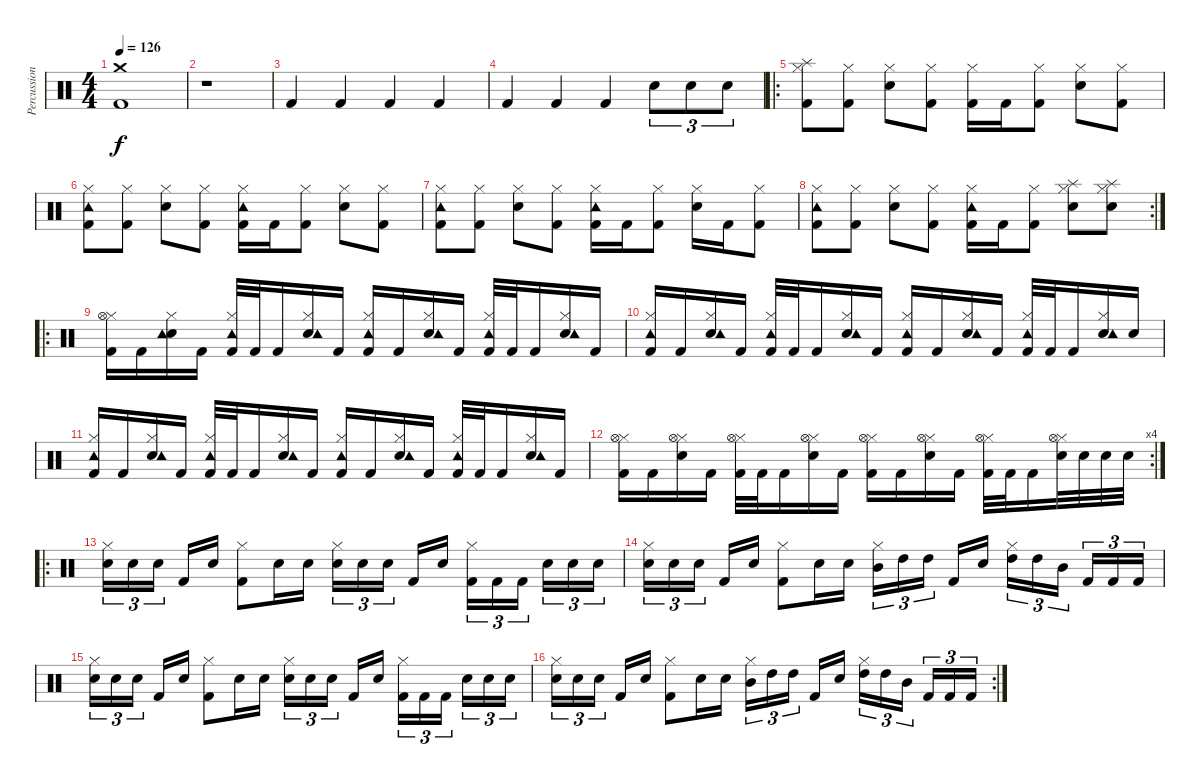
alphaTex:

\track ("Percussion" "Percussion") {instrument percussion}
\staff {score}
\articulation defaults
\ts (4 4)
\tempo 126
\clef neutral
\ks c
("Crash medium (hit)" "Kick (hit) 2").1{dy f} |
r.1 |
"Kick (hit) 2".4 "Kick (hit) 2".4 "Kick (hit) 2".4 "Kick (hit) 2".4 |
"Kick (hit) 2".4 "Kick (hit) 2".4 "Kick (hit) 2".4 "Electric Snare (hit)".8{tu (3 2)} "Electric Snare (hit)".8{tu (3 2)} "Electric Snare (hit)".8{tu (3 2)} |
\ro
("Hi-Hat (closed)" "Kick (hit) 2" "Splash (hit)").8 ("Hi-Hat (closed)" "Kick (hit) 2").8 ("Hi-Hat (closed)" "Electric Snare (hit)").8 ("Hi-Hat (closed)" "Kick (hit) 2").8 ("Hi-Hat (closed)" "Kick (hit) 2").16 "Kick (hit) 2".16 ("Hi-Hat (closed)" "Kick (hit) 2").8 ("Hi-Hat (closed)" "Electric Snare (hit)").8 ("Hi-Hat (closed)" "Kick (hit) 2").8 |
("Hi-Hat (closed)" "Kick (hit) 2" "Tambourine (hit)").8 ("Hi-Hat (closed)" "Kick (hit) 2").8 ("Hi-Hat (closed)" "Electric Snare (hit)").8 ("Hi-Hat (closed)" "Kick (hit) 2").8 ("Hi-Hat (closed)" "Kick (hit) 2" "Tambourine (hit)").16 "Kick (hit) 2".16 ("Hi-Hat (closed)" "Kick (hit) 2").8 ("Hi-Hat (closed)" "Electric Snare (hit)").8 ("Hi-Hat (closed)" "Kick (hit) 2").8 |
("Hi-Hat (closed)" "Kick (hit) 2" "Tambourine (hit)").8 ("Hi-Hat (closed)" "Kick (hit) 2").8 ("Hi-Hat (closed)" "Electric Snare (hit)").8 ("Hi-Hat (closed)" "Kick (hit) 2").8 ("Hi-Hat (closed)" "Kick (hit) 2" "Tambourine (hit)").16 "Kick (hit) 2".16 ("Hi-Hat (closed)" "Kick (hit) 2").8 ("Hi-Hat (closed)" "Electric Snare (hit)").16 "Kick (hit) 2".16 ("Hi-Hat (closed)" "Kick (hit) 2").8 |
\rc 2
("Hi-Hat (closed)" "Kick (hit) 2" "Tambourine (hit)").8 ("Hi-Hat (closed)" "Kick (hit) 2").8 ("Hi-Hat (closed)" "Electric Snare (hit)").8 ("Hi-Hat (closed)" "Kick (hit) 2").8 ("Hi-Hat (closed)" "Kick (hit) 2" "Tambourine (hit)").16 "Kick (hit) 2".16 ("Hi-Hat (closed)" "Kick (hit) 2").8 ("Hi-Hat (closed)" "Electric Snare (hit)" "Splash (hit)").8 ("Hi-Hat (closed)" "Electric Snare (hit)" "Splash (hit)").8 |
\ro
("Hi-Hat (closed)" "Kick (hit) 2" "Hi-Hat (open)").16 "Kick (hit) 2".16 ("Hi-Hat (closed)" "Electric Snare (hit)" "Tambourine (hit)").16 "Kick (hit) 2".16 ("Hi-Hat (closed)" "Kick (hit) 2" "Tambourine (hit)").32 "Kick (hit) 2".32 "Kick (hit) 2".16 ("Hi-Hat (closed)" "Electric Snare (hit)" "Tambourine (hit)").16 "Kick (hit) 2".16 ("Hi-Hat (closed)" "Kick (hit) 2" "Tambourine (hit)").16 "Kick (hit) 2".16 ("Hi-Hat (closed)" "Electric Snare (hit)" "Tambourine (hit)").16 "Kick (hit) 2".16 ("Hi-Hat (closed)" "Kick (hit) 2" "Tambourine (hit)").32 "Kick (hit) 2".32 "Kick (hit) 2".16 ("Hi-Hat (closed)" "Electric Snare (hit)" "Tambourine (hit)").16 "Kick (hit) 2".16 |
("Hi-Hat (closed)" "Kick (hit) 2" "Tambourine (hit)").16 "Kick (hit) 2".16 ("Hi-Hat (closed)" "Electric Snare (hit)" "Tambourine (hit)").16 "Kick (hit) 2".16 ("Hi-Hat (closed)" "Kick (hit) 2" "Tambourine (hit)").32 "Kick (hit) 2".32 "Kick (hit) 2".16 ("Hi-Hat (closed)" "Electric Snare (hit)" "Tambourine (hit)").16 "Kick (hit) 2".16 ("Hi-Hat (closed)" "Kick (hit) 2" "Tambourine (hit)").16 "Kick (hit) 2".16 ("Hi-Hat (closed)" "Electric Snare (hit)" "Tambourine (hit)").16 "Kick (hit) 2".16 ("Hi-Hat (closed)" "Kick (hit) 2" "Tambourine (hit)").32 "Kick (hit) 2".32 "Kick (hit) 2".16 ("Hi-Hat (closed)" "Electric Snare (hit)" "Tambourine (hit)").16 "Electric Snare (hit)".16 |
("Hi-Hat (closed)" "Kick (hit) 2" "Tambourine (hit)").16 "Kick (hit) 2".16 ("Hi-Hat (closed)" "Electric Snare (hit)" "Tambourine (hit)").16 "Kick (hit) 2".16 ("Hi-Hat (closed)" "Kick (hit) 2" "Tambourine (hit)").32 "Kick (hit) 2".32 "Kick (hit) 2".16 ("Hi-Hat (closed)" "Electric Snare (hit)" "Tambourine (hit)").16 "Kick (hit) 2".16 ("Hi-Hat (closed)" "Kick (hit) 2" "Tambourine (hit)").16 "Kick (hit) 2".16 ("Hi-Hat (closed)" "Electric Snare (hit)" "Tambourine (hit)").16 "Kick (hit) 2".16 ("Hi-Hat (closed)" "Kick (hit) 2" "Tambourine (hit)").32 "Kick (hit) 2".32 "Kick (hit) 2".16 ("Hi-Hat (closed)" "Electric Snare (hit)" "Tambourine (hit)").16 "Kick (hit) 2".16 |
\rc 4
("Hi-Hat (closed)" "Kick (hit) 2" "Hi-Hat (open)").16 "Kick (hit) 2".16 ("Hi-Hat (closed)" "Electric Snare (hit)" "Hi-Hat (open)").16 "Kick (hit) 2".16 ("Hi-Hat (closed)" "Kick (hit) 2" "Hi-Hat (open)").32 "Kick (hit) 2".32 "Kick (hit) 2".16 ("Hi-Hat (closed)" "Electric Snare (hit)" "Hi-Hat (open)").16 "Kick (hit) 2".16 ("Hi-Hat (closed)" "Kick (hit) 2" "Hi-Hat (open)").16 "Kick (hit) 2".16 ("Hi-Hat (closed)" "Electric Snare (hit)" "Hi-Hat (open)").16 "Kick (hit) 2".16 ("Hi-Hat (closed)" "Kick (hit) 2" "Hi-Hat (open)").32 "Kick (hit) 2".32 "Kick (hit) 2".16 ("Hi-Hat (closed)" "Electric Snare (hit)" "Hi-Hat (open)").32 "Electric Snare (hit)".32 "Electric Snare (hit)".32 "Electric Snare (hit)".32 |
\ro
("Hi-Hat (closed)" "Electric Snare (hit)").16{tu (3 2)} "Electric Snare (hit)".16{tu (3 2)} "Electric Snare (hit)".16{tu (3 2)} "Kick (hit) 2".16 "Electric Snare (hit)".16 ("Hi-Hat (closed)" "Kick (hit) 2").8 "Electric Snare (hit)".16 "Electric Snare (hit)".16 ("Hi-Hat (closed)" "Electric Snare (hit)").16{tu (3 2)} "Electric Snare (hit)".16{tu (3 2)} "Electric Snare (hit)".16{tu (3 2)} "Kick (hit) 2".16 "Electric Snare (hit)".16 ("Hi-Hat (closed)" "Kick (hit) 2").16{tu (3 2)} "Kick (hit) 2".16{tu (3 2)} "Kick (hit) 2".16{tu (3 2)} "Electric Snare (hit)".16{tu (3 2)} "Electric Snare (hit)".16{tu (3 2)} "Electric Snare (hit)".16{tu (3 2)} |
("Hi-Hat (closed)" "Electric Snare (hit)").16{tu (3 2)} "Electric Snare (hit)".16{tu (3 2)} "Electric Snare (hit)".16{tu (3 2)} "Kick (hit) 2".16 "Electric Snare (hit)".16 ("Hi-Hat (closed)" "Kick (hit) 2").8 "Electric Snare (hit)".16 "Electric Snare (hit)".16 ("Hi-Hat (closed)" "Mid Tom (hit)").16{tu (3 2)} "High Tom (hit)".16{tu (3 2)} "High Tom (hit)".16{tu (3 2)} "Kick (hit) 2".16 "Electric Snare (hit)".16 ("Hi-Hat (closed)" "High Tom (hit)").16{tu (3 2)} "High Tom (hit)".16{tu (3 2)} "Mid Tom (hit)".16{tu (3 2)} "Kick (hit) 2".16{tu (3 2)} "Kick (hit) 2".16{tu (3 2)} "Kick (hit) 2".16{tu (3 2)} |
("Hi-Hat (closed)" "Electric Snare (hit)").16{tu (3 2)} "Electric Snare (hit)".16{tu (3 2)} "Electric Snare (hit)".16{tu (3 2)} "Kick (hit) 2".16 "Electric Snare (hit)".16 ("Hi-Hat (closed)" "Kick (hit) 2").8 "Electric Snare (hit)".16 "Electric Snare (hit)".16 ("Hi-Hat (closed)" "Electric Snare (hit)").16{tu (3 2)} "Electric Snare (hit)".16{tu (3 2)} "Electric Snare (hit)".16{tu (3 2)} "Kick (hit) 2".16 "Electric Snare (hit)".16 ("Hi-Hat (closed)" "Kick (hit) 2").16{tu (3 2)} "Kick (hit) 2".16{tu (3 2)} "Kick (hit) 2".16{tu (3 2)} "Electric Snare (hit)".16{tu (3 2)} "Electric Snare (hit)".16{tu (3 2)} "Electric Snare (hit)".16{tu (3 2)} |
\rc 2
("Hi-Hat (closed)" "Electric Snare (hit)").16{tu (3 2)} "Electric Snare (hit)".16{tu (3 2)} "Electric Snare (hit)".16{tu (3 2)} "Kick (hit) 2".16 "Electric Snare (hit)".16 ("Hi-Hat (closed)" "Kick (hit) 2").8 "Electric Snare (hit)".16 "Electric Snare (hit)".16 ("Hi-Hat (closed)" "Mid Tom (hit)").16{tu (3 2)} "High Tom (hit)".16{tu (3 2)} "High Tom (hit)".16{tu (3 2)} "Kick (hit) 2".16 "Electric Snare (hit)".16 ("Hi-Hat (closed)" "High Tom (hit)").16{tu (3 2)} "High Tom (hit)".16{tu (3 2)} "Mid Tom (hit)".16{tu (3 2)} "Kick (hit) 2".16{tu (3 2)} "Kick (hit) 2".16{tu (3 2)} "Kick (hit) 2".16{tu (3 2)}
